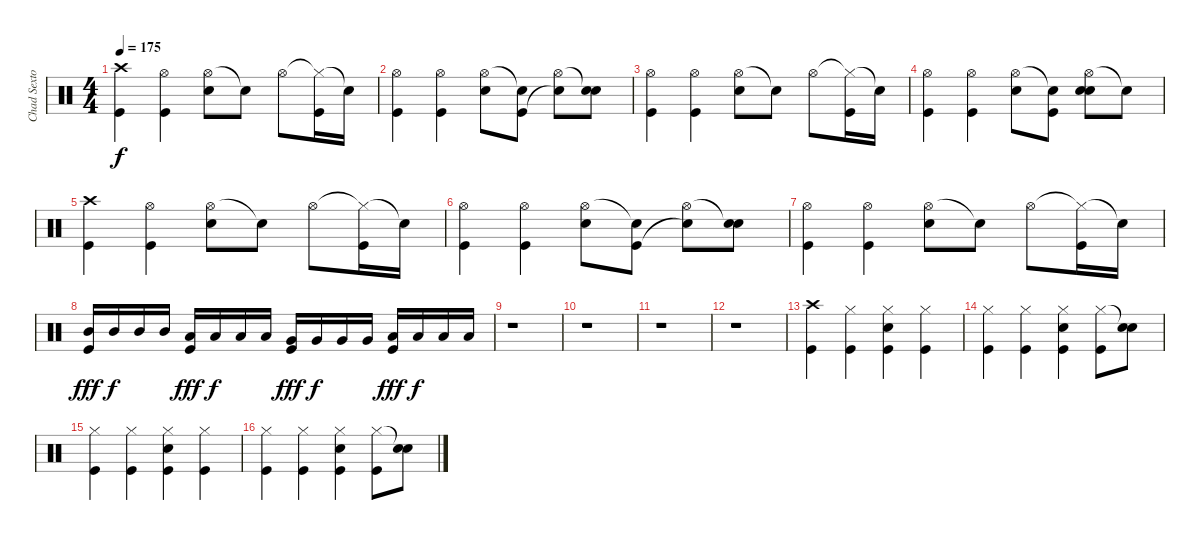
\track ("Chad Sexton" "Chad Sexto") {instrument percussion}
\staff {score}
\articulation defaults
\ts (4 4)
\tempo 175
\clef neutral
\ks c
("Crash high (hit)" "Kick (hit)").4{dy f} ("Hi-Hat (open)" "Kick (hit)").4 ("Hi-Hat (open)" "Snare (hit) 2").8 "Snare (hit)"{t}.8 "Hi-Hat (open)".8 ("Hi-Hat (closed)"{t} "Kick (hit)").16 "Snare (hit)"{t}.16 |
("Hi-Hat (open)" "Kick (hit)").4 ("Hi-Hat (open)" "Kick (hit)").4 ("Hi-Hat (open)" "Snare (hit) 2").8 ("Snare (hit)"{t} "Kick (hit)").8 ("Hi-Hat (open)" "Snare (hit)"{t}).8 ("Snare (hit)"{t} "Snare (hit) 2").8 |
("Hi-Hat (open)" "Kick (hit)").4 ("Hi-Hat (open)" "Kick (hit)").4 ("Hi-Hat (open)" "Snare (hit) 2").8 "Snare (hit)"{t}.8 "Hi-Hat (open)".8 ("Hi-Hat (closed)"{t} "Kick (hit)").16 "Snare (hit)"{t}.16 |
("Hi-Hat (open)" "Kick (hit)").4 ("Hi-Hat (open)" "Kick (hit)").4 ("Hi-Hat (open)" "Snare (hit) 2").8 ("Snare (hit)"{t} "Kick (hit)").8 ("Hi-Hat (open)" "Snare (hit) 2" "Snare (hit)").8 "Snare (hit)"{t}.8 |
("Crash high (hit)" "Kick (hit)").4 ("Hi-Hat (open)" "Kick (hit)").4 ("Hi-Hat (open)" "Snare (hit) 2").8 "Snare (hit)"{t}.8 "Hi-Hat (open)".8 ("Hi-Hat (closed)"{t} "Kick (hit)").16 "Snare (hit)"{t}.16 |
("Hi-Hat (open)" "Kick (hit)").4 ("Hi-Hat (open)" "Kick (hit)").4 ("Hi-Hat (open)" "Snare (hit) 2").8 ("Snare (hit)"{t} "Kick (hit)").8 ("Hi-Hat (open)" "Snare (hit)"{t}).8 ("Snare (hit)"{t} "Snare (hit) 2").8 |
("Hi-Hat (open)" "Kick (hit)").4 ("Hi-Hat (open)" "Kick (hit)").4 ("Hi-Hat (open)" "Snare (hit) 2").8 "Snare (hit)"{t}.8 "Hi-Hat (open)".8 ("Hi-Hat (closed)"{t} "Kick (hit)").16 "Snare (hit)"{t}.16 |
("Mid Tom (hit)" "Kick (hit)").16{dy fff} "Mid Tom (hit)".16{dy f} "Mid Tom (hit)".16 "Mid Tom (hit)".16 ("Low Tom (hit)" "Kick (hit)").16{dy fff} "Low Tom (hit)".16{dy f} "Low Tom (hit)".16 "Low Tom (hit)".16 ("Very Low Tom (hit)" "Kick (hit)").16{dy fff} "Very Low Tom (hit)".16{dy f} "Very Low Tom (hit)".16 "Very Low Tom (hit)".16 ("Low Floor Tom (hit)" "Kick (hit)").16{dy fff} "Low Floor Tom (hit)".16{dy f} "Low Floor Tom (hit)".16 "Low Floor Tom (hit)".16 |
r.1 |
r.1 |
r.1 |
r.1 |
("Crash high (hit)" "Kick (hit)").4 ("Hi-Hat (closed)" "Kick (hit)").4 ("Hi-Hat (closed)" "Snare (hit) 2" "Kick (hit)").4 ("Hi-Hat (closed)" "Kick (hit)").4 |
("Hi-Hat (closed)" "Kick (hit)").4 ("Hi-Hat (closed)" "Kick (hit)").4 ("Hi-Hat (closed)" "Snare (hit) 2" "Kick (hit)").4 ("Hi-Hat (closed)" "Kick (hit)").8 ("Snare (hit)"{t} "Snare (hit) 2").8 |
("Hi-Hat (closed)" "Kick (hit)").4 ("Hi-Hat (closed)" "Kick (hit)").4 ("Hi-Hat (closed)" "Snare (hit) 2" "Kick (hit)").4 ("Hi-Hat (closed)" "Kick (hit)").4 |
("Hi-Hat (closed)" "Kick (hit)").4 ("Hi-Hat (closed)" "Kick (hit)").4 ("Hi-Hat (closed)" "Snare (hit) 2" "Kick (hit)").4 ("Hi-Hat (closed)" "Kick (hit)").8 ("Snare (hit)"{t} "Snare (hit) 2").8
